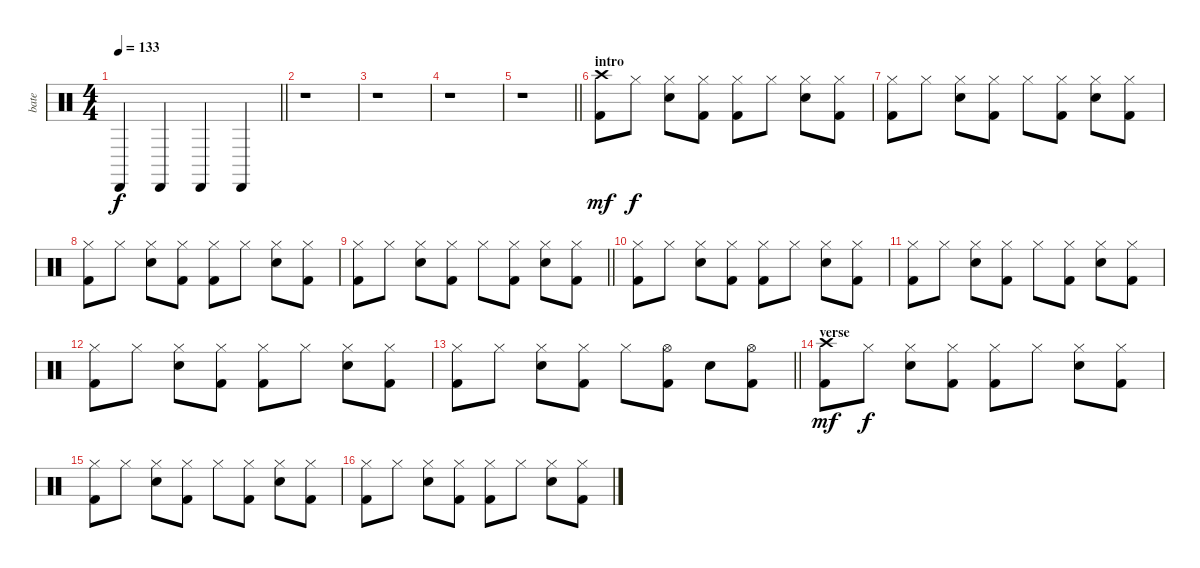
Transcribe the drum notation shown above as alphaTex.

\track ("bate" "bate") {instrument percussion}
\staff {score}
\articulation defaults
\ts (4 4)
\tempo 133
\clef neutral
\barLineRight lightlight
\ks c "Cabasa (hit)".4{dy f} "Cabasa (hit)".4 "Cabasa (hit)".4 "Cabasa (hit)".4
|
r.1 |
r.1 |
r.1 |
\barLineRight lightlight
r.1 |
\section ("" "intro")
("Crash high (hit)" "Kick (hit) 2").8{dy mf} "Hi-Hat (closed)".8{dy f} ("Hi-Hat (closed)" "Snare (hit) 2").8 ("Hi-Hat (closed)" "Kick (hit) 2").8 ("Hi-Hat (closed)" "Kick (hit) 2").8 "Hi-Hat (closed)".8 ("Hi-Hat (closed)" "Snare (hit) 2").8 ("Hi-Hat (closed)" "Kick (hit) 2").8 |
("Hi-Hat (closed)" "Kick (hit) 2").8 "Hi-Hat (closed)".8 ("Hi-Hat (closed)" "Snare (hit) 2").8 ("Hi-Hat (closed)" "Kick (hit) 2").8 "Hi-Hat (closed)".8 ("Hi-Hat (closed)" "Kick (hit) 2").8 ("Hi-Hat (closed)" "Snare (hit) 2").8 ("Hi-Hat (closed)" "Kick (hit) 2").8 |
("Hi-Hat (closed)" "Kick (hit) 2").8 "Hi-Hat (closed)".8 ("Hi-Hat (closed)" "Snare (hit) 2").8 ("Hi-Hat (closed)" "Kick (hit) 2").8 ("Hi-Hat (closed)" "Kick (hit) 2").8 "Hi-Hat (closed)".8 ("Hi-Hat (closed)" "Snare (hit) 2").8 ("Hi-Hat (closed)" "Kick (hit) 2").8 |
\barLineRight lightlight
("Hi-Hat (closed)" "Kick (hit) 2").8 "Hi-Hat (closed)".8 ("Hi-Hat (closed)" "Snare (hit) 2").8 ("Hi-Hat (closed)" "Kick (hit) 2").8 "Hi-Hat (closed)".8 ("Hi-Hat (closed)" "Kick (hit) 2").8 ("Hi-Hat (closed)" "Snare (hit) 2").8 ("Hi-Hat (closed)" "Kick (hit) 2").8 |
("Hi-Hat (closed)" "Kick (hit) 2").8 "Hi-Hat (closed)".8 ("Hi-Hat (closed)" "Snare (hit) 2").8 ("Hi-Hat (closed)" "Kick (hit) 2").8 ("Hi-Hat (closed)" "Kick (hit) 2").8 "Hi-Hat (closed)".8 ("Hi-Hat (closed)" "Snare (hit) 2").8 ("Hi-Hat (closed)" "Kick (hit) 2").8 |
("Hi-Hat (closed)" "Kick (hit) 2").8 "Hi-Hat (closed)".8 ("Hi-Hat (closed)" "Snare (hit) 2").8 ("Hi-Hat (closed)" "Kick (hit) 2").8 "Hi-Hat (closed)".8 ("Hi-Hat (closed)" "Kick (hit) 2").8 ("Hi-Hat (closed)" "Snare (hit) 2").8 ("Hi-Hat (closed)" "Kick (hit) 2").8 |
("Hi-Hat (closed)" "Kick (hit) 2").8 "Hi-Hat (closed)".8 ("Hi-Hat (closed)" "Snare (hit) 2").8 ("Hi-Hat (closed)" "Kick (hit) 2").8 ("Hi-Hat (closed)" "Kick (hit) 2").8 "Hi-Hat (closed)".8 ("Hi-Hat (closed)" "Snare (hit) 2").8 ("Hi-Hat (closed)" "Kick (hit) 2").8 |
\barLineRight lightlight
("Hi-Hat (closed)" "Kick (hit) 2").8 "Hi-Hat (closed)".8 ("Hi-Hat (closed)" "Snare (hit) 2").8 ("Hi-Hat (closed)" "Kick (hit) 2").8 "Hi-Hat (closed)".8 ("Hi-Hat (open)" "Kick (hit) 2").8 "Snare (hit) 2".8 ("Hi-Hat (open)" "Kick (hit) 2").8 |
\section ("" "verse")
("Crash high (hit)" "Kick (hit) 2").8{dy mf} "Hi-Hat (closed)".8{dy f} ("Hi-Hat (closed)" "Snare (hit) 2").8 ("Hi-Hat (closed)" "Kick (hit) 2").8 ("Hi-Hat (closed)" "Kick (hit) 2").8 "Hi-Hat (closed)".8 ("Hi-Hat (closed)" "Snare (hit) 2").8 ("Hi-Hat (closed)" "Kick (hit) 2").8 |
("Hi-Hat (closed)" "Kick (hit) 2").8 "Hi-Hat (closed)".8 ("Hi-Hat (closed)" "Snare (hit) 2").8 ("Hi-Hat (closed)" "Kick (hit) 2").8 "Hi-Hat (closed)".8 ("Hi-Hat (closed)" "Kick (hit) 2").8 ("Hi-Hat (closed)" "Snare (hit) 2").8 ("Hi-Hat (closed)" "Kick (hit) 2").8 |
("Hi-Hat (closed)" "Kick (hit) 2").8 "Hi-Hat (closed)".8 ("Hi-Hat (closed)" "Snare (hit) 2").8 ("Hi-Hat (closed)" "Kick (hit) 2").8 ("Hi-Hat (closed)" "Kick (hit) 2").8 "Hi-Hat (closed)".8 ("Hi-Hat (closed)" "Snare (hit) 2").8 ("Hi-Hat (closed)" "Kick (hit) 2").8
